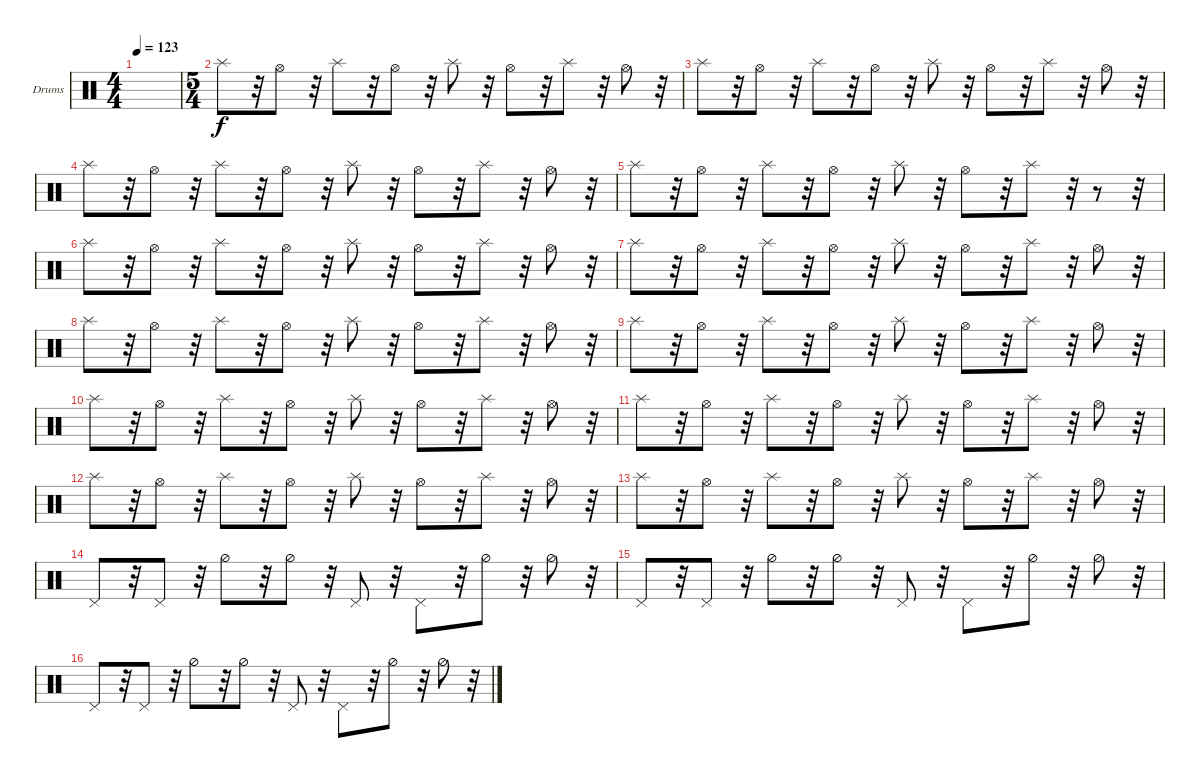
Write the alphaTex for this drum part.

\defaultSystemsLayout 4
\bracketExtendMode groupsimilarinstruments
\firstSystemTrackNameOrientation horizontal
\otherSystemsTrackNameOrientation horizontal
\track ("Drumkit" "Drums") {instrument percussion}
\staff {score}
\articulation defaults
\ts (4 4)
\tempo 123
\clef neutral
\ks c
|
\ts (5 4)
"Splash (hit)".8 r.32 "Hi-Hat (open)".8 r.32 "Splash (hit)".8 r.32 "Hi-Hat (open)".8 r.32 "Splash (hit)".8 r.32 "Hi-Hat (open)".8 r.32 "Splash (hit)".8 r.32 "Hi-Hat (open)".8 r.32 |
"Splash (hit)".8 r.32 "Hi-Hat (open)".8 r.32 "Splash (hit)".8 r.32 "Hi-Hat (open)".8 r.32 "Splash (hit)".8 r.32 "Hi-Hat (open)".8 r.32 "Splash (hit)".8 r.32 "Hi-Hat (open)".8 r.32 |
"Splash (hit)".8 r.32 "Hi-Hat (open)".8 r.32 "Splash (hit)".8 r.32 "Hi-Hat (open)".8 r.32 "Splash (hit)".8 r.32 "Hi-Hat (open)".8 r.32 "Splash (hit)".8 r.32 "Hi-Hat (open)".8 r.32 |
"Splash (hit)".8 r.32 "Hi-Hat (open)".8 r.32 "Splash (hit)".8 r.32 "Hi-Hat (open)".8 r.32 "Splash (hit)".8 r.32 "Hi-Hat (open)".8 r.32 "Splash (hit)".8 r.32 r.8 r.32 |
"Splash (hit)".8 r.32 "Hi-Hat (open)".8 r.32 "Splash (hit)".8 r.32 "Hi-Hat (open)".8 r.32 "Splash (hit)".8 r.32 "Hi-Hat (open)".8 r.32 "Splash (hit)".8 r.32 "Hi-Hat (open)".8 r.32 |
"Splash (hit)".8 r.32 "Hi-Hat (open)".8 r.32 "Splash (hit)".8 r.32 "Hi-Hat (open)".8 r.32 "Splash (hit)".8 r.32 "Hi-Hat (open)".8 r.32 "Splash (hit)".8 r.32 "Hi-Hat (open)".8 r.32 |
"Splash (hit)".8 r.32 "Hi-Hat (open)".8 r.32 "Splash (hit)".8 r.32 "Hi-Hat (open)".8 r.32 "Splash (hit)".8 r.32 "Hi-Hat (open)".8 r.32 "Splash (hit)".8 r.32 "Hi-Hat (open)".8 r.32 |
"Splash (hit)".8 r.32 "Hi-Hat (open)".8 r.32 "Splash (hit)".8 r.32 "Hi-Hat (open)".8 r.32 "Splash (hit)".8 r.32 "Hi-Hat (open)".8 r.32 "Splash (hit)".8 r.32 "Hi-Hat (open)".8 r.32 |
"Splash (hit)".8 r.32 "Hi-Hat (open)".8 r.32 "Splash (hit)".8 r.32 "Hi-Hat (open)".8 r.32 "Splash (hit)".8 r.32 "Hi-Hat (open)".8 r.32 "Splash (hit)".8 r.32 "Hi-Hat (open)".8 r.32 |
"Splash (hit)".8 r.32 "Hi-Hat (open)".8 r.32 "Splash (hit)".8 r.32 "Hi-Hat (open)".8 r.32 "Splash (hit)".8 r.32 "Hi-Hat (open)".8 r.32 "Splash (hit)".8 r.32 "Hi-Hat (open)".8 r.32 |
"Splash (hit)".8 r.32 "Hi-Hat (open)".8 r.32 "Splash (hit)".8 r.32 "Hi-Hat (open)".8 r.32 "Splash (hit)".8 r.32 "Hi-Hat (open)".8 r.32 "Splash (hit)".8 r.32 "Hi-Hat (open)".8 r.32 |
"Splash (hit)".8 r.32 "Hi-Hat (open)".8 r.32 "Splash (hit)".8 r.32 "Hi-Hat (open)".8 r.32 "Splash (hit)".8 r.32 "Hi-Hat (open)".8 r.32 "Splash (hit)".8 r.32 "Hi-Hat (open)".8 r.32 |
"Pedal Hi-Hat (hit)".8 r.32 "Pedal Hi-Hat (hit)".8 r.32 "Hi-Hat (half)".8 r.32 "Hi-Hat (half)".8 r.32 "Pedal Hi-Hat (hit)".8 r.32 "Pedal Hi-Hat (hit)".8 r.32 "Hi-Hat (half)".8 r.32 "Hi-Hat (half)".8 r.32 |
"Pedal Hi-Hat (hit)".8 r.32 "Pedal Hi-Hat (hit)".8 r.32 "Hi-Hat (half)".8 r.32 "Hi-Hat (half)".8 r.32 "Pedal Hi-Hat (hit)".8 r.32 "Pedal Hi-Hat (hit)".8 r.32 "Hi-Hat (half)".8 r.32 "Hi-Hat (half)".8 r.32 |
"Pedal Hi-Hat (hit)".8 r.32 "Pedal Hi-Hat (hit)".8 r.32 "Hi-Hat (half)".8 r.32 "Hi-Hat (half)".8 r.32 "Pedal Hi-Hat (hit)".8 r.32 "Pedal Hi-Hat (hit)".8 r.32 "Hi-Hat (half)".8 r.32 "Hi-Hat (half)".8 r.32
